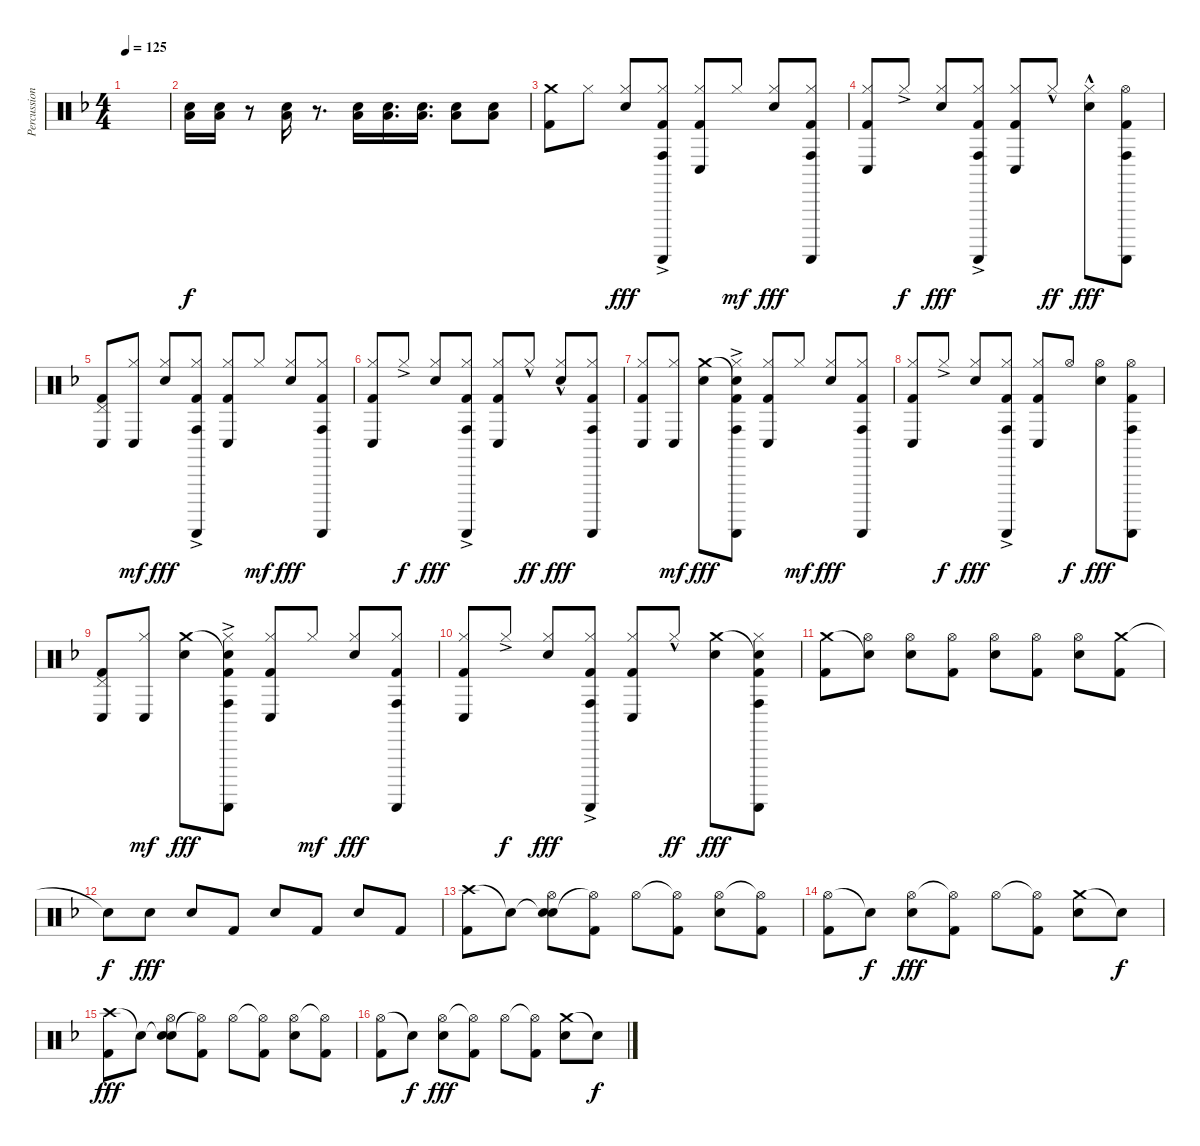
\track ("Percussion" "Percussion") {instrument percussion}
\staff {score}
\articulation defaults
\ts (4 4)
\tempo 125
\clef neutral
\ks dminor
|
("Electric Snare (hit)" "Low Floor Tom (hit)").16 ("Electric Snare (hit)" "Low Floor Tom (hit)").16 r.8 ("Electric Snare (hit)" "Low Floor Tom (hit)").16 r.8{d} ("Electric Snare (hit)" "Low Floor Tom (hit)").16 ("Electric Snare (hit)" "Low Floor Tom (hit)").16{d} ("Electric Snare (hit)" "Low Floor Tom (hit)").16{d} ("Electric Snare (hit)" "Low Floor Tom (hit)").8 ("Electric Snare (hit)" "Low Floor Tom (hit)").8 |
("Crash medium (hit)" "Kick (hit) 2").8 "Hi-Hat (closed)".8{dy f} ("Hi-Hat (closed)" "Electric Snare (hit)").8{dy fff} ("Hi-Hat (closed)"{ac} "Guiro (scrap-return)" "Conga high (hit)" "Kick (hit) 2").8 ("Hi-Hat (closed)" "Conga low (hit)" "Kick (hit) 2").8 "Hi-Hat (closed)".8{dy mf} ("Hi-Hat (closed)" "Electric Snare (hit)").8{dy fff} ("Hi-Hat (closed)" "Guiro (scrap-return)" "Conga high (hit)" "Kick (hit) 2").8 |
("Hi-Hat (closed)" "Conga low (hit)" "Kick (hit) 2").8 "Hi-Hat (closed)"{ac}.8{dy f} ("Hi-Hat (closed)" "Electric Snare (hit)").8{dy fff} ("Hi-Hat (closed)"{ac} "Guiro (scrap-return)" "Conga high (hit)" "Kick (hit) 2").8 ("Hi-Hat (closed)" "Conga low (hit)" "Kick (hit) 2").8 "Hi-Hat (closed)"{hac}.8{dy ff} ("Hi-Hat (closed)"{hac} "Electric Snare (hit)").8{dy fff} ("Hi-Hat (open)" "Guiro (scrap-return)" "Conga high (hit)" "Kick (hit) 2").8 |
("Pedal Hi-Hat (hit)" "Conga low (hit)" "Kick (hit) 2").8 ("Hi-Hat (closed)" "Conga low (hit)").8{dy mf} ("Hi-Hat (closed)" "Electric Snare (hit)").8{dy fff} ("Hi-Hat (closed)"{ac} "Guiro (scrap-return)" "Conga high (hit)" "Kick (hit) 2").8 ("Hi-Hat (closed)" "Conga low (hit)" "Kick (hit) 2").8 "Hi-Hat (closed)".8{dy mf} ("Hi-Hat (closed)" "Electric Snare (hit)").8{dy fff} ("Hi-Hat (closed)" "Guiro (scrap-return)" "Conga high (hit)" "Kick (hit) 2").8 |
("Hi-Hat (closed)" "Conga low (hit)" "Kick (hit) 2").8 "Hi-Hat (closed)"{ac}.8{dy f} ("Hi-Hat (closed)" "Electric Snare (hit)").8{dy fff} ("Hi-Hat (closed)"{ac} "Guiro (scrap-return)" "Conga high (hit)" "Kick (hit) 2").8 ("Hi-Hat (closed)" "Conga low (hit)" "Kick (hit) 2").8 "Hi-Hat (closed)"{hac}.8{dy ff} ("Hi-Hat (closed)"{hac} "Electric Snare (hit)").8{dy fff} ("Hi-Hat (closed)" "Guiro (scrap-return)" "Conga high (hit)" "Kick (hit) 2").8 |
("Hi-Hat (closed)" "Conga low (hit)" "Kick (hit) 2").8 ("Hi-Hat (closed)" "Conga low (hit)").8{dy mf} ("Crash medium (hit)" "Electric Snare (hit)").8{dy fff} ("Snare (hit)"{t} "Hi-Hat (closed)"{ac} "Guiro (scrap-return)" "Conga high (hit)" "Kick (hit) 2").8 ("Hi-Hat (closed)" "Conga low (hit)" "Kick (hit) 2").8 "Hi-Hat (closed)".8{dy mf} ("Hi-Hat (closed)" "Electric Snare (hit)").8{dy fff} ("Hi-Hat (closed)" "Guiro (scrap-return)" "Conga high (hit)" "Kick (hit) 2").8 |
("Hi-Hat (closed)" "Conga low (hit)" "Kick (hit) 2").8 "Hi-Hat (closed)"{ac}.8{dy f} ("Hi-Hat (closed)" "Electric Snare (hit)").8{dy fff} ("Hi-Hat (closed)"{ac} "Guiro (scrap-return)" "Conga high (hit)" "Kick (hit) 2").8 ("Hi-Hat (closed)" "Conga low (hit)" "Kick (hit) 2").8 "Hi-Hat (open)".8{dy f} ("Hi-Hat (open)" "Electric Snare (hit)").8{dy fff} ("Hi-Hat (open)" "Guiro (scrap-return)" "Conga high (hit)" "Kick (hit) 2").8 |
("Pedal Hi-Hat (hit)" "Conga low (hit)" "Kick (hit) 2").8 ("Hi-Hat (closed)" "Conga low (hit)").8{dy mf} ("Crash medium (hit)" "Electric Snare (hit)").8{dy fff} ("Snare (hit)"{t} "Hi-Hat (closed)"{ac} "Guiro (scrap-return)" "Conga high (hit)" "Kick (hit) 2").8 ("Hi-Hat (closed)" "Conga low (hit)" "Kick (hit) 2").8 "Hi-Hat (closed)".8{dy mf} ("Hi-Hat (closed)" "Electric Snare (hit)").8{dy fff} ("Hi-Hat (closed)" "Guiro (scrap-return)" "Conga high (hit)" "Kick (hit) 2").8 |
("Hi-Hat (closed)" "Conga low (hit)" "Kick (hit) 2").8 "Hi-Hat (closed)"{ac}.8{dy f} ("Hi-Hat (closed)" "Electric Snare (hit)").8{dy fff} ("Hi-Hat (closed)"{ac} "Guiro (scrap-return)" "Conga high (hit)" "Kick (hit) 2").8 ("Hi-Hat (closed)" "Conga low (hit)" "Kick (hit) 2").8 "Hi-Hat (closed)"{hac}.8{dy ff} ("Crash medium (hit)" "Electric Snare (hit)").8{dy fff} ("Snare (hit)"{t} "Hi-Hat (closed)" "Guiro (scrap-return)" "Conga high (hit)" "Kick (hit) 2").8 |
("Crash medium (hit)" "Kick (hit) 2").8 ("Snare (hit)"{t} "Hi-Hat (open)").8 ("Hi-Hat (open)" "Electric Snare (hit)").8 ("Hi-Hat (open)" "Kick (hit) 2").8 ("Hi-Hat (open)" "Electric Snare (hit)").8 ("Hi-Hat (open)" "Kick (hit) 2").8 ("Hi-Hat (open)" "Electric Snare (hit)").8 ("Crash medium (hit)" "Kick (hit) 2").8 |
"Snare (hit)"{t}.8{dy f} "Electric Snare (hit)".8{dy fff} "Electric Snare (hit)".8 "Kick (hit) 2".8 "Electric Snare (hit)".8 "Kick (hit) 2".8 "Electric Snare (hit)".8 "Kick (hit) 2".8 |
("Crash high (hit)" "Kick (hit) 2").8 "Snare (hit)"{t}.8 ("Snare (hit)"{t} "Hi-Hat (open)" "Electric Snare (hit)").8 ("Hi-Hat (open)"{t} "Kick (hit) 2").8 "Hi-Hat (open)".8 ("Hi-Hat (open)"{t} "Kick (hit) 2").8 ("Hi-Hat (open)" "Electric Snare (hit)").8 ("Hi-Hat (open)"{t} "Kick (hit) 2").8 |
("Hi-Hat (open)" "Kick (hit) 2").8 "Snare (hit)"{t}.8{dy f} ("Hi-Hat (open)" "Electric Snare (hit)").8{dy fff} ("Hi-Hat (open)"{t} "Kick (hit) 2").8 "Hi-Hat (open)".8 ("Hi-Hat (open)"{t} "Kick (hit) 2").8 ("Crash medium (hit)" "Electric Snare (hit)").8 "Snare (hit)"{t}.8{dy f} |
("Crash high (hit)" "Kick (hit) 2").8{dy fff} "Snare (hit)"{t}.8 ("Snare (hit)"{t} "Hi-Hat (open)" "Electric Snare (hit)").8 ("Hi-Hat (open)"{t} "Kick (hit) 2").8 "Hi-Hat (open)".8 ("Hi-Hat (open)"{t} "Kick (hit) 2").8 ("Hi-Hat (open)" "Electric Snare (hit)").8 ("Hi-Hat (open)"{t} "Kick (hit) 2").8 |
("Hi-Hat (open)" "Kick (hit) 2").8 "Snare (hit)"{t}.8{dy f} ("Hi-Hat (open)" "Electric Snare (hit)").8{dy fff} ("Hi-Hat (open)"{t} "Kick (hit) 2").8 "Hi-Hat (open)".8 ("Hi-Hat (open)"{t} "Kick (hit) 2").8 ("Crash medium (hit)" "Electric Snare (hit)").8 "Snare (hit)"{t}.8{dy f}
